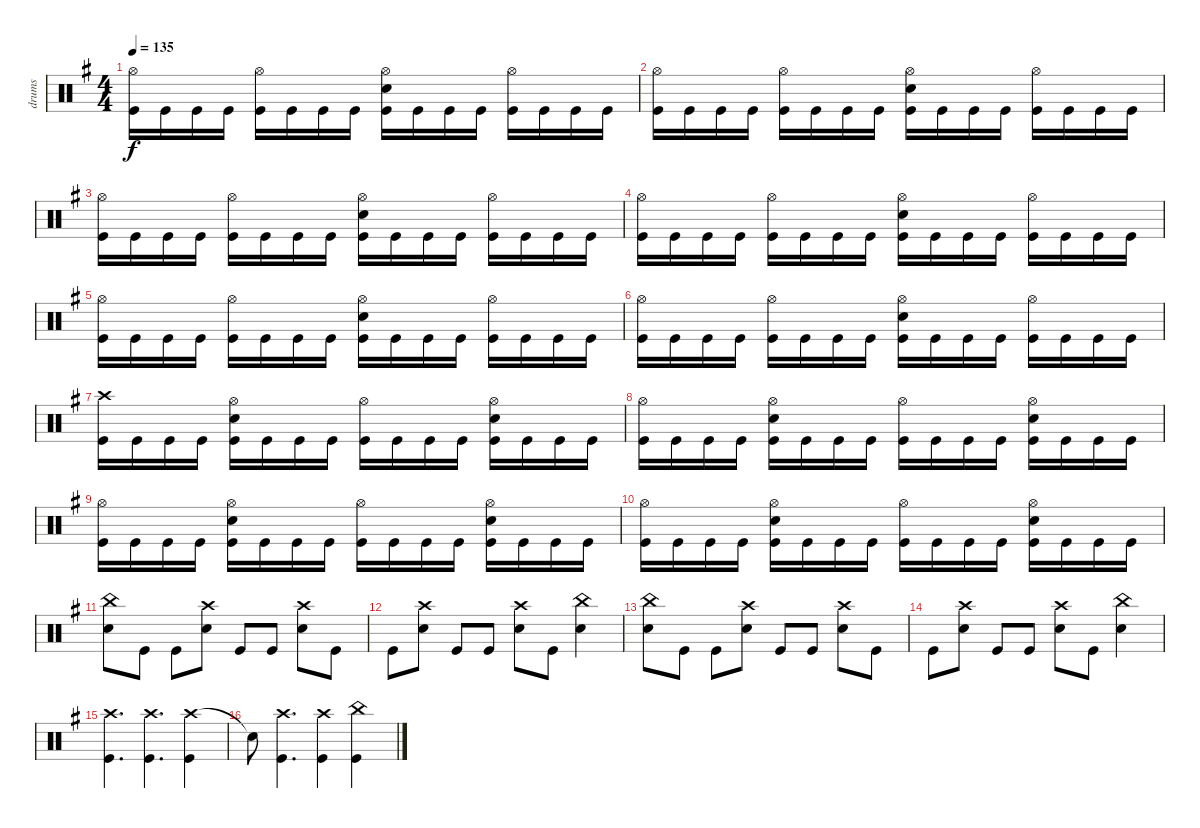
\track ("drums" "drums") {instrument percussion}
\staff {score}
\articulation defaults
\ts (4 4)
\tempo 135
\clef neutral
\ks eminor
("Hi-Hat (open)" "Kick (hit)").16{dy f} "Kick (hit)".16 "Kick (hit)".16 "Kick (hit)".16 ("Hi-Hat (open)" "Kick (hit)").16 "Kick (hit)".16 "Kick (hit)".16 "Kick (hit)".16 ("Hi-Hat (open)" "Snare (hit) 2" "Kick (hit)").16 "Kick (hit)".16 "Kick (hit)".16 "Kick (hit)".16 ("Hi-Hat (open)" "Kick (hit)").16 "Kick (hit)".16 "Kick (hit)".16 "Kick (hit)".16 |
("Hi-Hat (open)" "Kick (hit)").16 "Kick (hit)".16 "Kick (hit)".16 "Kick (hit)".16 ("Hi-Hat (open)" "Kick (hit)").16 "Kick (hit)".16 "Kick (hit)".16 "Kick (hit)".16 ("Hi-Hat (open)" "Snare (hit) 2" "Kick (hit)").16 "Kick (hit)".16 "Kick (hit)".16 "Kick (hit)".16 ("Hi-Hat (open)" "Kick (hit)").16 "Kick (hit)".16 "Kick (hit)".16 "Kick (hit)".16 |
("Hi-Hat (open)" "Kick (hit)").16 "Kick (hit)".16 "Kick (hit)".16 "Kick (hit)".16 ("Hi-Hat (open)" "Kick (hit)").16 "Kick (hit)".16 "Kick (hit)".16 "Kick (hit)".16 ("Hi-Hat (open)" "Snare (hit) 2" "Kick (hit)").16 "Kick (hit)".16 "Kick (hit)".16 "Kick (hit)".16 ("Hi-Hat (open)" "Kick (hit)").16 "Kick (hit)".16 "Kick (hit)".16 "Kick (hit)".16 |
("Hi-Hat (open)" "Kick (hit)").16 "Kick (hit)".16 "Kick (hit)".16 "Kick (hit)".16 ("Hi-Hat (open)" "Kick (hit)").16 "Kick (hit)".16 "Kick (hit)".16 "Kick (hit)".16 ("Hi-Hat (open)" "Snare (hit) 2" "Kick (hit)").16 "Kick (hit)".16 "Kick (hit)".16 "Kick (hit)".16 ("Hi-Hat (open)" "Kick (hit)").16 "Kick (hit)".16 "Kick (hit)".16 "Kick (hit)".16 |
("Hi-Hat (open)" "Kick (hit)").16 "Kick (hit)".16 "Kick (hit)".16 "Kick (hit)".16 ("Hi-Hat (open)" "Kick (hit)").16 "Kick (hit)".16 "Kick (hit)".16 "Kick (hit)".16 ("Hi-Hat (open)" "Snare (hit) 2" "Kick (hit)").16 "Kick (hit)".16 "Kick (hit)".16 "Kick (hit)".16 ("Hi-Hat (open)" "Kick (hit)").16 "Kick (hit)".16 "Kick (hit)".16 "Kick (hit)".16 |
("Hi-Hat (open)" "Kick (hit)").16 "Kick (hit)".16 "Kick (hit)".16 "Kick (hit)".16 ("Hi-Hat (open)" "Kick (hit)").16 "Kick (hit)".16 "Kick (hit)".16 "Kick (hit)".16 ("Hi-Hat (open)" "Snare (hit) 2" "Kick (hit)").16 "Kick (hit)".16 "Kick (hit)".16 "Kick (hit)".16 ("Hi-Hat (open)" "Kick (hit)").16 "Kick (hit)".16 "Kick (hit)".16 "Kick (hit)".16 |
("Crash high (hit)" "Kick (hit)").16 "Kick (hit)".16 "Kick (hit)".16 "Kick (hit)".16 ("Hi-Hat (open)" "Snare (hit) 2" "Kick (hit)").16 "Kick (hit)".16 "Kick (hit)".16 "Kick (hit)".16 ("Hi-Hat (open)" "Kick (hit)").16 "Kick (hit)".16 "Kick (hit)".16 "Kick (hit)".16 ("Hi-Hat (open)" "Snare (hit) 2" "Kick (hit)").16 "Kick (hit)".16 "Kick (hit)".16 "Kick (hit)".16 |
("Hi-Hat (open)" "Kick (hit)").16 "Kick (hit)".16 "Kick (hit)".16 "Kick (hit)".16 ("Hi-Hat (open)" "Snare (hit) 2" "Kick (hit)").16 "Kick (hit)".16 "Kick (hit)".16 "Kick (hit)".16 ("Hi-Hat (open)" "Kick (hit)").16 "Kick (hit)".16 "Kick (hit)".16 "Kick (hit)".16 ("Hi-Hat (open)" "Snare (hit) 2" "Kick (hit)").16 "Kick (hit)".16 "Kick (hit)".16 "Kick (hit)".16 |
("Hi-Hat (open)" "Kick (hit)").16 "Kick (hit)".16 "Kick (hit)".16 "Kick (hit)".16 ("Hi-Hat (open)" "Snare (hit) 2" "Kick (hit)").16 "Kick (hit)".16 "Kick (hit)".16 "Kick (hit)".16 ("Hi-Hat (open)" "Kick (hit)").16 "Kick (hit)".16 "Kick (hit)".16 "Kick (hit)".16 ("Hi-Hat (open)" "Snare (hit) 2" "Kick (hit)").16 "Kick (hit)".16 "Kick (hit)".16 "Kick (hit)".16 |
("Hi-Hat (open)" "Kick (hit)").16 "Kick (hit)".16 "Kick (hit)".16 "Kick (hit)".16 ("Hi-Hat (open)" "Snare (hit) 2" "Kick (hit)").16 "Kick (hit)".16 "Kick (hit)".16 "Kick (hit)".16 ("Hi-Hat (open)" "Kick (hit)").16 "Kick (hit)".16 "Kick (hit)".16 "Kick (hit)".16 ("Hi-Hat (open)" "Snare (hit) 2" "Kick (hit)").16 "Kick (hit)".16 "Kick (hit)".16 "Kick (hit)".16 |
("China (hit)" "Snare (hit) 2").8 "Kick (hit)".8 "Kick (hit)".8 ("Crash high (hit)" "Snare (hit) 2").8 "Kick (hit)".8 "Kick (hit)".8 ("Crash high (hit)" "Snare (hit) 2").8 "Kick (hit)".8 |
"Kick (hit)".8 ("Crash high (hit)" "Snare (hit) 2").8 "Kick (hit)".8 "Kick (hit)".8 ("Crash high (hit)" "Snare (hit) 2").8 "Kick (hit)".8 ("China (hit)" "Snare (hit) 2").4 |
("China (hit)" "Snare (hit) 2").8 "Kick (hit)".8 "Kick (hit)".8 ("Crash high (hit)" "Snare (hit) 2").8 "Kick (hit)".8 "Kick (hit)".8 ("Crash high (hit)" "Snare (hit) 2").8 "Kick (hit)".8 |
"Kick (hit)".8 ("Crash high (hit)" "Snare (hit) 2").8 "Kick (hit)".8 "Kick (hit)".8 ("Crash high (hit)" "Snare (hit) 2").8 "Kick (hit)".8 ("China (hit)" "Snare (hit) 2").4 |
("Crash high (hit)" "Kick (hit)").4{d} ("Crash high (hit)" "Kick (hit)").4{d} ("Crash high (hit)" "Kick (hit)").4 |
"Snare (hit) 2"{t}.8 ("Crash high (hit)" "Kick (hit)").4{d} ("Crash high (hit)" "Kick (hit)").4 ("China (hit)" "Kick (hit)").4
